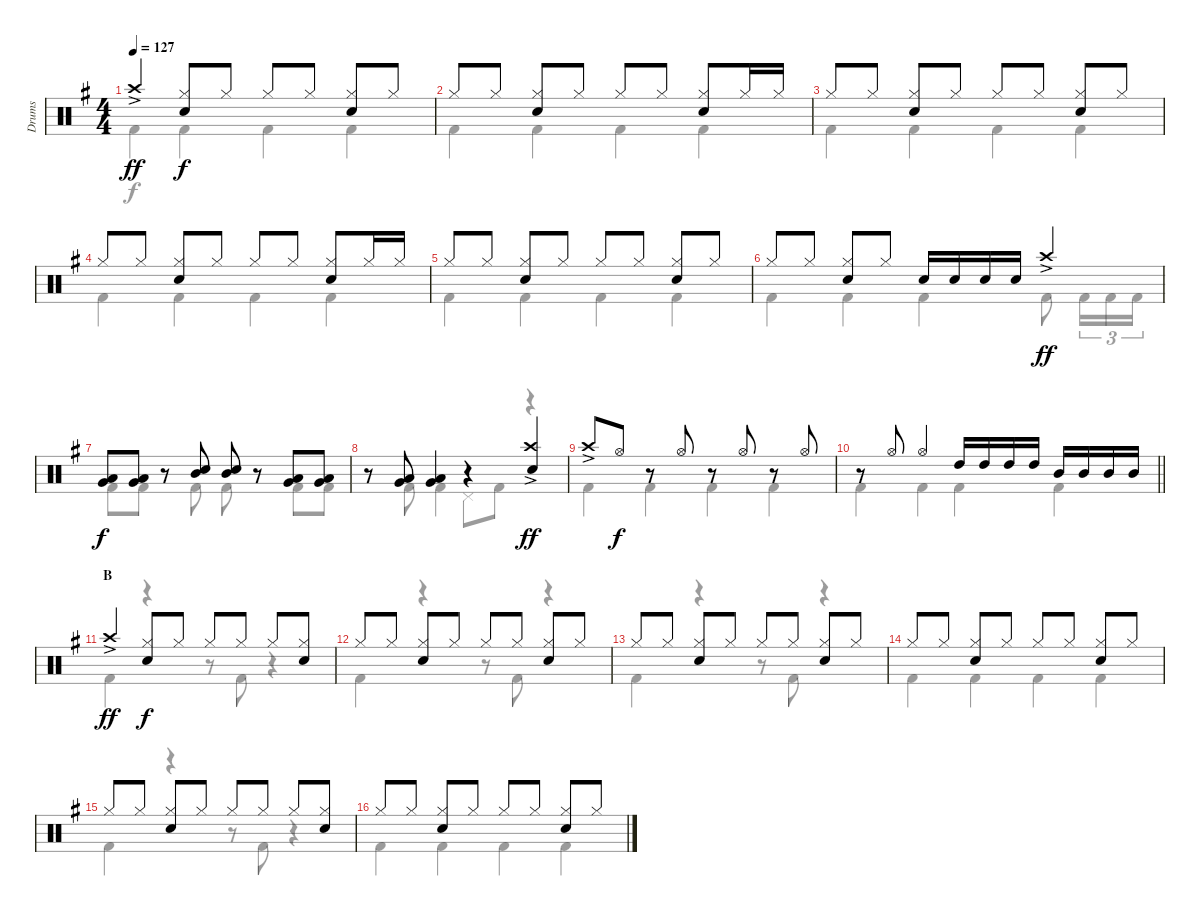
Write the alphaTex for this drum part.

\track ("Drums" "Drums") {instrument percussion}
\staff {score}
\articulation defaults
\voice
\ts (4 4)
\tempo 127
\clef neutral
\ks g "Crash high (hit)"{ac}.4{dy ff}
("Hi-Hat (closed)" "Snare (hit) 2").8{dy f} "Hi-Hat (closed)".8 "Hi-Hat (closed)".8 "Hi-Hat (closed)".8 ("Hi-Hat (closed)" "Snare (hit) 2").8 "Hi-Hat (closed)".8 |
"Hi-Hat (closed)".8 "Hi-Hat (closed)".8 ("Hi-Hat (closed)" "Snare (hit) 2").8 "Hi-Hat (closed)".8 "Hi-Hat (closed)".8 "Hi-Hat (closed)".8 ("Hi-Hat (closed)" "Snare (hit) 2").8 "Hi-Hat (closed)".16 "Hi-Hat (closed)".16 |
"Hi-Hat (closed)".8 "Hi-Hat (closed)".8 ("Hi-Hat (closed)" "Snare (hit) 2").8 "Hi-Hat (closed)".8 "Hi-Hat (closed)".8 "Hi-Hat (closed)".8 ("Hi-Hat (closed)" "Snare (hit) 2").8 "Hi-Hat (closed)".8 |
"Hi-Hat (closed)".8 "Hi-Hat (closed)".8 ("Hi-Hat (closed)" "Snare (hit) 2").8 "Hi-Hat (closed)".8 "Hi-Hat (closed)".8 "Hi-Hat (closed)".8 ("Hi-Hat (closed)" "Snare (hit) 2").8 "Hi-Hat (closed)".16 "Hi-Hat (closed)".16 |
"Hi-Hat (closed)".8 "Hi-Hat (closed)".8 ("Hi-Hat (closed)" "Snare (hit) 2").8 "Hi-Hat (closed)".8 "Hi-Hat (closed)".8 "Hi-Hat (closed)".8 ("Hi-Hat (closed)" "Snare (hit) 2").8 "Hi-Hat (closed)".8 |
"Hi-Hat (closed)".8 "Hi-Hat (closed)".8 ("Hi-Hat (closed)" "Snare (hit) 2").8 "Hi-Hat (closed)".8 "Snare (hit) 2".16 "Snare (hit) 2".16 "Snare (hit) 2".16 "Snare (hit) 2".16 "Crash high (hit)"{ac}.4{dy ff} |
("Low Tom (hit)" "Very Low Tom (hit)").8{dy f} ("Low Tom (hit)" "Very Low Tom (hit)").8 r.8 ("Mid Tom (hit)" "Snare (hit) 2").8 ("Mid Tom (hit)" "Snare (hit) 2").8 r.8 ("Low Tom (hit)" "Very Low Tom (hit)").8 ("Low Tom (hit)" "Very Low Tom (hit)").8 |
r.8 ("Low Tom (hit)" "Very Low Tom (hit)").8 ("Low Tom (hit)" "Very Low Tom (hit)").4 r.4 ("Crash high (hit)"{ac} "Snare (hit) 2").4{dy ff} |
"Crash high (hit)"{ac}.8 "Hi-Hat (open)".8{dy f} r.8 "Hi-Hat (open)".8 r.8 "Hi-Hat (open)".8 r.8 "Hi-Hat (open)".8 |
\barLineRight lightlight
r.8 "Hi-Hat (open)".8 "Hi-Hat (open)".4 "High Tom (hit)".16 "High Tom (hit)".16 "High Tom (hit)".16 "High Tom (hit)".16 "Mid Tom (hit)".16 "Mid Tom (hit)".16 "Mid Tom (hit)".16 "Mid Tom (hit)".16 |
\section ("" "B")
"Crash high (hit)"{ac}.4{dy ff} ("Hi-Hat (closed)" "Snare (hit) 2").8{dy f} "Hi-Hat (closed)".8 "Hi-Hat (closed)".8 "Hi-Hat (closed)".8 "Hi-Hat (closed)".8 ("Hi-Hat (closed)" "Snare (hit) 2").8 |
"Hi-Hat (closed)".8 "Hi-Hat (closed)".8 ("Hi-Hat (closed)" "Snare (hit) 2").8 "Hi-Hat (closed)".8 "Hi-Hat (closed)".8 "Hi-Hat (closed)".8 ("Hi-Hat (closed)" "Snare (hit) 2").8 "Hi-Hat (closed)".8 |
"Hi-Hat (closed)".8 "Hi-Hat (closed)".8 ("Hi-Hat (closed)" "Snare (hit) 2").8 "Hi-Hat (closed)".8 "Hi-Hat (closed)".8 "Hi-Hat (closed)".8 ("Hi-Hat (closed)" "Snare (hit) 2").8 "Hi-Hat (closed)".8 |
"Hi-Hat (closed)".8 "Hi-Hat (closed)".8 ("Hi-Hat (closed)" "Snare (hit) 2").8 "Hi-Hat (closed)".8 "Hi-Hat (closed)".8 "Hi-Hat (closed)".8 ("Hi-Hat (closed)" "Snare (hit) 2").8 "Hi-Hat (closed)".8 |
"Hi-Hat (closed)".8 "Hi-Hat (closed)".8 ("Hi-Hat (closed)" "Snare (hit) 2").8 "Hi-Hat (closed)".8 "Hi-Hat (closed)".8 "Hi-Hat (closed)".8 "Hi-Hat (closed)".8 ("Hi-Hat (closed)" "Snare (hit) 2").8 |
"Hi-Hat (closed)".8 "Hi-Hat (closed)".8 ("Hi-Hat (closed)" "Snare (hit) 2").8 "Hi-Hat (closed)".8 "Hi-Hat (closed)".8 "Hi-Hat (closed)".8 ("Hi-Hat (closed)" "Snare (hit) 2").8 "Hi-Hat (closed)".8
\voice
\clef neutral
\ottava regular
\simile none
\ks g "Kick (hit) 2".4{dy f} "Kick (hit) 2".4 "Kick (hit) 2".4 "Kick (hit) 2".4
|
"Kick (hit) 2".4 "Kick (hit) 2".4 "Kick (hit) 2".4 "Kick (hit) 2".4 |
"Kick (hit) 2".4 "Kick (hit) 2".4 "Kick (hit) 2".4 "Kick (hit) 2".4 |
"Kick (hit) 2".4 "Kick (hit) 2".4 "Kick (hit) 2".4 "Kick (hit) 2".4 |
"Kick (hit) 2".4 "Kick (hit) 2".4 "Kick (hit) 2".4 "Kick (hit) 2".4 |
"Kick (hit) 2".4 "Kick (hit) 2".4 "Kick (hit) 2".4 "Kick (hit) 2".8 "Kick (hit) 2".16{tu (3 2)} "Kick (hit) 2".16{tu (3 2)} "Kick (hit) 2".16{tu (3 2)} |
"Kick (hit) 2".8 "Kick (hit) 2".8 r.8 "Kick (hit) 2".8 "Kick (hit) 2".8 r.8 "Kick (hit) 2".8 "Kick (hit) 2".8 |
r.8 "Kick (hit) 2".8 "Kick (hit) 2".4 "Pedal Hi-Hat (hit)".8 "Kick (hit) 2".8 r.4 |
"Kick (hit) 2".4 "Kick (hit) 2".4 "Kick (hit) 2".4 "Kick (hit) 2".4 |
\barLineRight lightlight "Kick (hit) 2".4 "Kick (hit) 2".4 "Kick (hit) 2".4 "Kick (hit) 2".4
|
"Kick (hit) 2".4 r.4 r.8 "Kick (hit) 2".8 r.4 |
"Kick (hit) 2".4 r.4 r.8 "Kick (hit) 2".8 r.4 |
"Kick (hit) 2".4 r.4 r.8 "Kick (hit) 2".8 r.4 |
"Kick (hit) 2".4 "Kick (hit) 2".4 "Kick (hit) 2".4 "Kick (hit) 2".4 |
"Kick (hit) 2".4 r.4 r.8 "Kick (hit) 2".8 r.4 |
"Kick (hit) 2".4 "Kick (hit) 2".4 "Kick (hit) 2".4 "Kick (hit) 2".4
